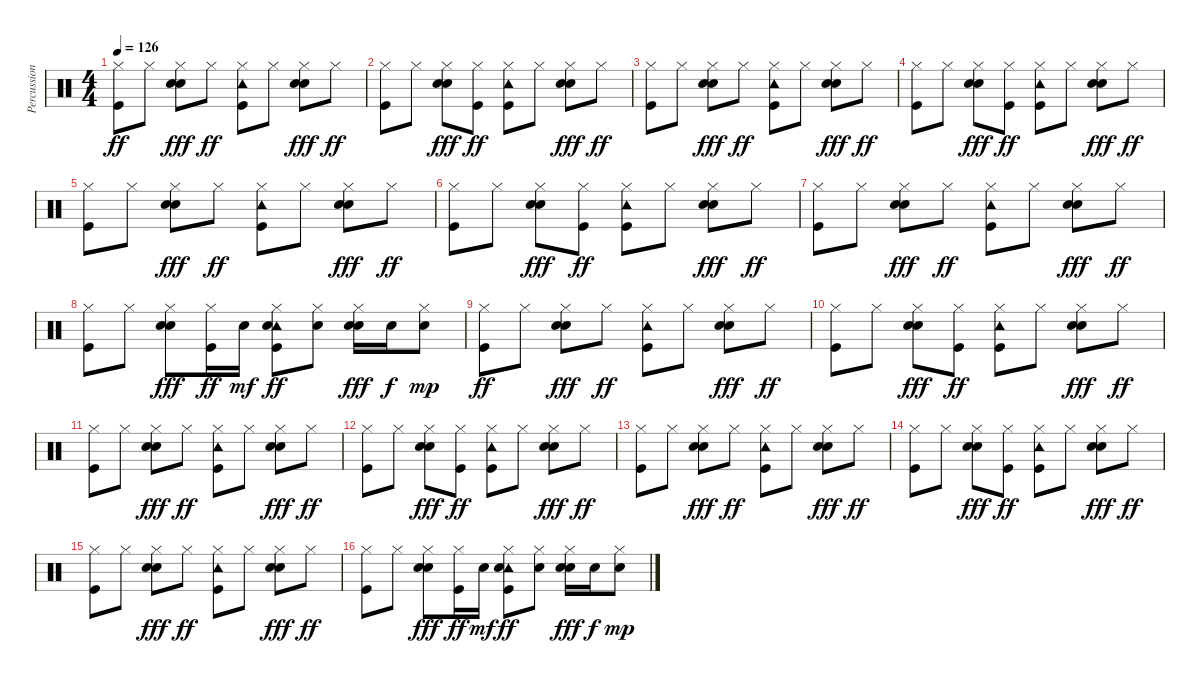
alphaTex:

\track ("Percussions" "Percussion") {instrument percussion}
\staff {score}
\articulation defaults
\ts (4 4)
\tempo 126
\clef neutral
\ks c
("Hi-Hat (closed)" "Kick (hit)").8{dy ff} "Hi-Hat (closed)".8 ("Hi-Hat (closed)" "Hand Clap (hit)" "Electric Snare (hit)").8{dy fff} "Hi-Hat (closed)".8{dy ff} ("Hi-Hat (closed)" "Tambourine (hit)" "Kick (hit)").8 "Hi-Hat (closed)".8 ("Hi-Hat (closed)" "Hand Clap (hit)" "Electric Snare (hit)").8{dy fff} "Hi-Hat (closed)".8{dy ff} |
("Hi-Hat (closed)" "Kick (hit)").8 "Hi-Hat (closed)".8 ("Hi-Hat (closed)" "Hand Clap (hit)" "Electric Snare (hit)").8{dy fff} ("Hi-Hat (closed)" "Kick (hit)").8{dy ff} ("Hi-Hat (closed)" "Tambourine (hit)" "Kick (hit)").8 "Hi-Hat (closed)".8 ("Hi-Hat (closed)" "Hand Clap (hit)" "Electric Snare (hit)").8{dy fff} "Hi-Hat (closed)".8{dy ff} |
("Hi-Hat (closed)" "Kick (hit)").8 "Hi-Hat (closed)".8 ("Hi-Hat (closed)" "Hand Clap (hit)" "Electric Snare (hit)").8{dy fff} "Hi-Hat (closed)".8{dy ff} ("Hi-Hat (closed)" "Tambourine (hit)" "Kick (hit)").8 "Hi-Hat (closed)".8 ("Hi-Hat (closed)" "Hand Clap (hit)" "Electric Snare (hit)").8{dy fff} "Hi-Hat (closed)".8{dy ff} |
("Hi-Hat (closed)" "Kick (hit)").8 "Hi-Hat (closed)".8 ("Hi-Hat (closed)" "Hand Clap (hit)" "Electric Snare (hit)").8{dy fff} ("Hi-Hat (closed)" "Kick (hit)").8{dy ff} ("Hi-Hat (closed)" "Tambourine (hit)" "Kick (hit)").8 "Hi-Hat (closed)".8 ("Hi-Hat (closed)" "Hand Clap (hit)" "Electric Snare (hit)").8{dy fff} "Hi-Hat (closed)".8{dy ff} |
("Hi-Hat (closed)" "Kick (hit)").8 "Hi-Hat (closed)".8 ("Hi-Hat (closed)" "Hand Clap (hit)" "Electric Snare (hit)").8{dy fff} "Hi-Hat (closed)".8{dy ff} ("Hi-Hat (closed)" "Tambourine (hit)" "Kick (hit)").8 "Hi-Hat (closed)".8 ("Hi-Hat (closed)" "Hand Clap (hit)" "Electric Snare (hit)").8{dy fff} "Hi-Hat (closed)".8{dy ff} |
("Hi-Hat (closed)" "Kick (hit)").8 "Hi-Hat (closed)".8 ("Hi-Hat (closed)" "Hand Clap (hit)" "Electric Snare (hit)").8{dy fff} ("Hi-Hat (closed)" "Kick (hit)").8{dy ff} ("Hi-Hat (closed)" "Tambourine (hit)" "Kick (hit)").8 "Hi-Hat (closed)".8 ("Hi-Hat (closed)" "Hand Clap (hit)" "Electric Snare (hit)").8{dy fff} "Hi-Hat (closed)".8{dy ff} |
("Hi-Hat (closed)" "Kick (hit)").8 "Hi-Hat (closed)".8 ("Hi-Hat (closed)" "Hand Clap (hit)" "Electric Snare (hit)").8{dy fff} "Hi-Hat (closed)".8{dy ff} ("Hi-Hat (closed)" "Tambourine (hit)" "Kick (hit)").8 "Hi-Hat (closed)".8 ("Hi-Hat (closed)" "Hand Clap (hit)" "Electric Snare (hit)").8{dy fff} "Hi-Hat (closed)".8{dy ff} |
("Hi-Hat (closed)" "Kick (hit)").8 "Hi-Hat (closed)".8 ("Hi-Hat (closed)" "Hand Clap (hit)" "Electric Snare (hit)").8{dy fff} ("Hi-Hat (closed)" "Kick (hit)").16{dy ff} "Electric Snare (hit)".16{dy mf} ("Hi-Hat (closed)" "Tambourine (hit)" "Electric Snare (hit)" "Kick (hit)").8{dy ff} ("Hi-Hat (closed)" "Electric Snare (hit)").8 ("Hi-Hat (closed)" "Hand Clap (hit)" "Electric Snare (hit)").16{dy fff} "Electric Snare (hit)".16{dy f} ("Hi-Hat (closed)" "Electric Snare (hit)").8{dy mp} |
("Hi-Hat (closed)" "Kick (hit)").8{dy ff} "Hi-Hat (closed)".8 ("Hi-Hat (closed)" "Hand Clap (hit)" "Electric Snare (hit)").8{dy fff} "Hi-Hat (closed)".8{dy ff} ("Hi-Hat (closed)" "Tambourine (hit)" "Kick (hit)").8 "Hi-Hat (closed)".8 ("Hi-Hat (closed)" "Hand Clap (hit)" "Electric Snare (hit)").8{dy fff} "Hi-Hat (closed)".8{dy ff} |
("Hi-Hat (closed)" "Kick (hit)").8 "Hi-Hat (closed)".8 ("Hi-Hat (closed)" "Hand Clap (hit)" "Electric Snare (hit)").8{dy fff} ("Hi-Hat (closed)" "Kick (hit)").8{dy ff} ("Hi-Hat (closed)" "Tambourine (hit)" "Kick (hit)").8 "Hi-Hat (closed)".8 ("Hi-Hat (closed)" "Hand Clap (hit)" "Electric Snare (hit)").8{dy fff} "Hi-Hat (closed)".8{dy ff} |
("Hi-Hat (closed)" "Kick (hit)").8 "Hi-Hat (closed)".8 ("Hi-Hat (closed)" "Hand Clap (hit)" "Electric Snare (hit)").8{dy fff} "Hi-Hat (closed)".8{dy ff} ("Hi-Hat (closed)" "Tambourine (hit)" "Kick (hit)").8 "Hi-Hat (closed)".8 ("Hi-Hat (closed)" "Hand Clap (hit)" "Electric Snare (hit)").8{dy fff} "Hi-Hat (closed)".8{dy ff} |
("Hi-Hat (closed)" "Kick (hit)").8 "Hi-Hat (closed)".8 ("Hi-Hat (closed)" "Hand Clap (hit)" "Electric Snare (hit)").8{dy fff} ("Hi-Hat (closed)" "Kick (hit)").8{dy ff} ("Hi-Hat (closed)" "Tambourine (hit)" "Kick (hit)").8 "Hi-Hat (closed)".8 ("Hi-Hat (closed)" "Hand Clap (hit)" "Electric Snare (hit)").8{dy fff} "Hi-Hat (closed)".8{dy ff} |
("Hi-Hat (closed)" "Kick (hit)").8 "Hi-Hat (closed)".8 ("Hi-Hat (closed)" "Hand Clap (hit)" "Electric Snare (hit)").8{dy fff} "Hi-Hat (closed)".8{dy ff} ("Hi-Hat (closed)" "Tambourine (hit)" "Kick (hit)").8 "Hi-Hat (closed)".8 ("Hi-Hat (closed)" "Hand Clap (hit)" "Electric Snare (hit)").8{dy fff} "Hi-Hat (closed)".8{dy ff} |
("Hi-Hat (closed)" "Kick (hit)").8 "Hi-Hat (closed)".8 ("Hi-Hat (closed)" "Hand Clap (hit)" "Electric Snare (hit)").8{dy fff} ("Hi-Hat (closed)" "Kick (hit)").8{dy ff} ("Hi-Hat (closed)" "Tambourine (hit)" "Kick (hit)").8 "Hi-Hat (closed)".8 ("Hi-Hat (closed)" "Hand Clap (hit)" "Electric Snare (hit)").8{dy fff} "Hi-Hat (closed)".8{dy ff} |
("Hi-Hat (closed)" "Kick (hit)").8 "Hi-Hat (closed)".8 ("Hi-Hat (closed)" "Hand Clap (hit)" "Electric Snare (hit)").8{dy fff} "Hi-Hat (closed)".8{dy ff} ("Hi-Hat (closed)" "Tambourine (hit)" "Kick (hit)").8 "Hi-Hat (closed)".8 ("Hi-Hat (closed)" "Hand Clap (hit)" "Electric Snare (hit)").8{dy fff} "Hi-Hat (closed)".8{dy ff} |
("Hi-Hat (closed)" "Kick (hit)").8 "Hi-Hat (closed)".8 ("Hi-Hat (closed)" "Hand Clap (hit)" "Electric Snare (hit)").8{dy fff} ("Hi-Hat (closed)" "Kick (hit)").16{dy ff} "Electric Snare (hit)".16{dy mf} ("Hi-Hat (closed)" "Tambourine (hit)" "Electric Snare (hit)" "Kick (hit)").8{dy ff} ("Hi-Hat (closed)" "Electric Snare (hit)").8 ("Hi-Hat (closed)" "Hand Clap (hit)" "Electric Snare (hit)").16{dy fff} "Electric Snare (hit)".16{dy f} ("Hi-Hat (closed)" "Electric Snare (hit)").8{dy mp}
